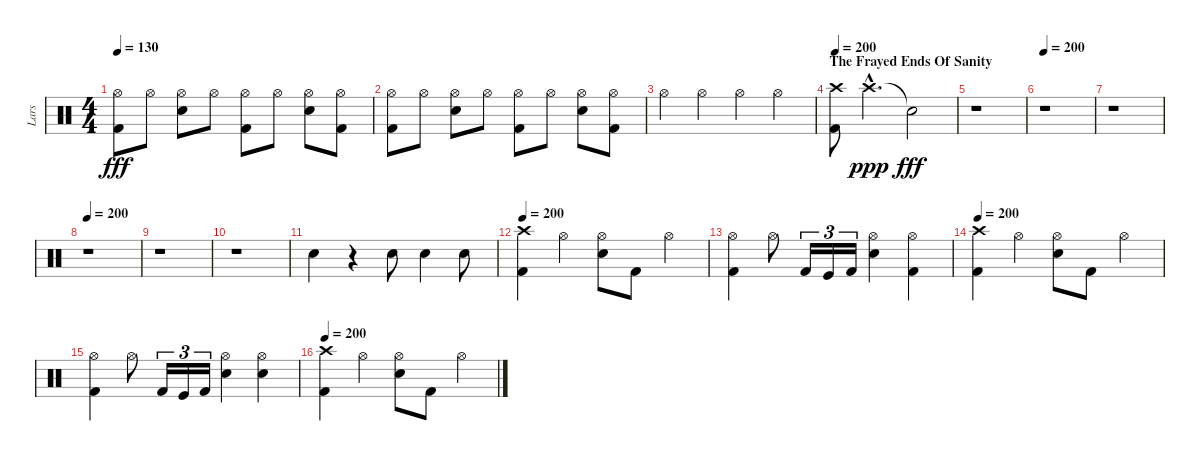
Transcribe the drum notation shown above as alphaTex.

\track ("Lars" "Lars") {instrument percussion}
\staff {score}
\articulation defaults
\ts (4 4)
\tempo 130
\clef neutral
\ks c
("Hi-Hat (open)" "Kick (hit) 2").8{dy fff} "Hi-Hat (open)".8 ("Hi-Hat (open)" "Snare (hit) 2").8 "Hi-Hat (open)".8 ("Hi-Hat (open)" "Kick (hit) 2").8 "Hi-Hat (open)".8 ("Hi-Hat (open)" "Snare (hit) 2").8 ("Hi-Hat (open)" "Kick (hit) 2").8 |
("Hi-Hat (open)" "Kick (hit) 2").8 "Hi-Hat (open)".8 ("Hi-Hat (open)" "Snare (hit) 2").8 "Hi-Hat (open)".8 ("Hi-Hat (open)" "Kick (hit) 2").8 "Hi-Hat (open)".8 ("Hi-Hat (open)" "Snare (hit) 2").8 ("Hi-Hat (open)" "Kick (hit) 2").8 |
"Hi-Hat (open)".4 "Hi-Hat (open)".4 "Hi-Hat (open)".4 "Hi-Hat (open)".4 |
\section ("" "The Frayed Ends Of Sanity")
\tempo 200
("Crash high (hit)" "Kick (hit) 2").8 "Crash high (hit)"{hac}.4{d dy ppp} "Snare (hit)"{t}.2{dy fff} |
r.1 |
\tempo 200
r.1 |
r.1 |
\tempo 200
r.1 |
r.1 |
r.1 |
"Snare (hit) 2".4 r.4 "Snare (hit) 2".8 "Snare (hit) 2".4 "Snare (hit) 2".8 |
\tempo 200
("Crash high (hit)" "Kick (hit) 2").4 "Hi-Hat (open)".4 ("Hi-Hat (open)" "Snare (hit) 2").8 "Kick (hit) 2".8 "Hi-Hat (open)".4 |
("Hi-Hat (open)" "Kick (hit) 2").4 "Hi-Hat (open)".8 "Kick (hit) 2".16{tu (3 2)} "Kick (hit)".16{tu (3 2)} "Kick (hit) 2".16{tu (3 2)} ("Hi-Hat (open)" "Snare (hit) 2").4 ("Hi-Hat (open)" "Kick (hit) 2").4 |
\tempo 200
("Crash high (hit)" "Kick (hit) 2").4 "Hi-Hat (open)".4 ("Hi-Hat (open)" "Snare (hit) 2").8 "Kick (hit) 2".8 "Hi-Hat (open)".4 |
("Hi-Hat (open)" "Kick (hit) 2").4 "Hi-Hat (open)".8 "Kick (hit) 2".16{tu (3 2)} "Kick (hit)".16{tu (3 2)} "Kick (hit) 2".16{tu (3 2)} ("Hi-Hat (open)" "Snare (hit) 2").4 ("Hi-Hat (open)" "Snare (hit) 2").4 |
\tempo 200
("Crash high (hit)" "Kick (hit) 2").4 "Hi-Hat (open)".4 ("Hi-Hat (open)" "Snare (hit) 2").8 "Kick (hit) 2".8 "Hi-Hat (open)".4
